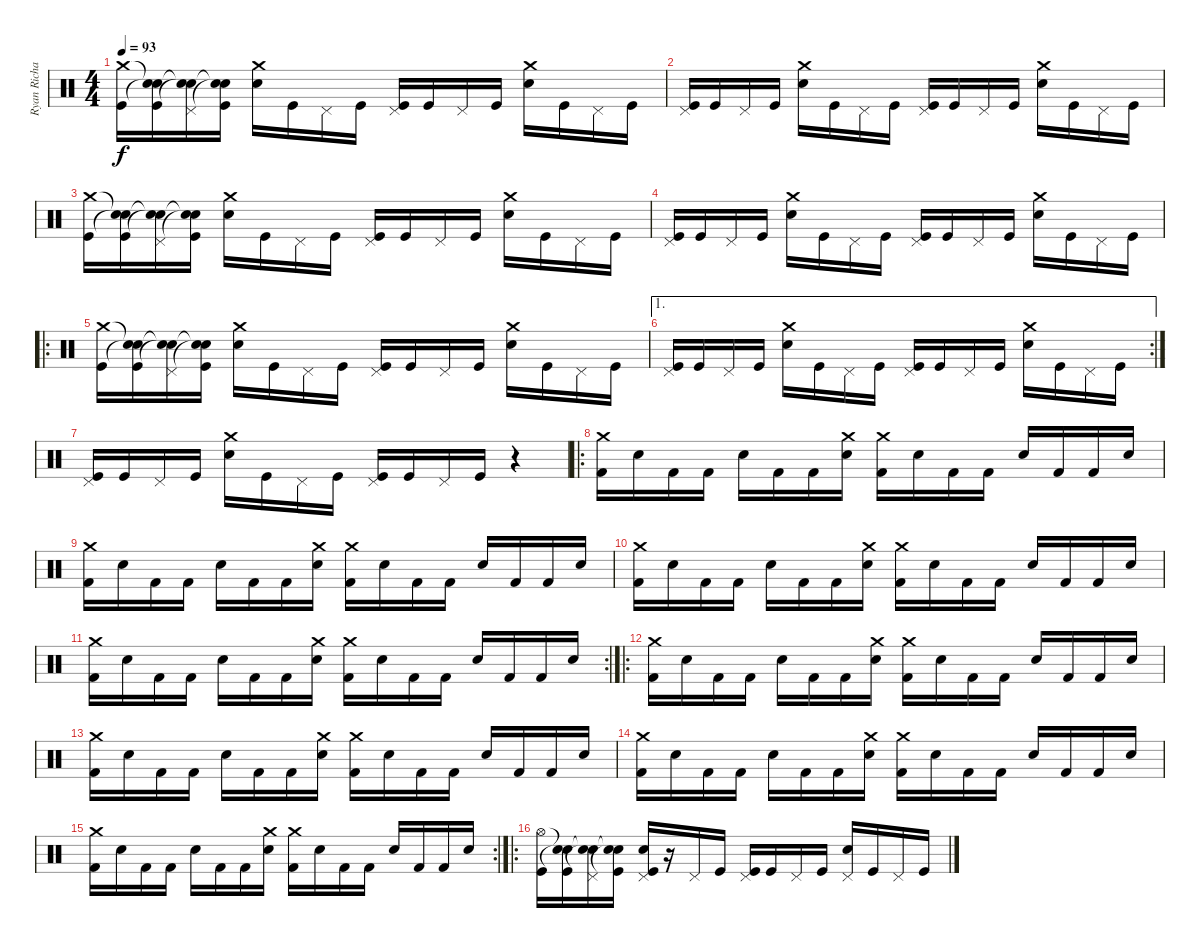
\track ("Ryan Richards" "Ryan Richa") {instrument percussion}
\staff {score}
\articulation defaults
\ts (4 4)
\tempo 93
\clef neutral
\ks c
("Crash medium (hit)" "Kick (hit)").16{dy f} ("Snare (hit)"{t} "Snare (hit)"{t} "Kick (hit)").16 ("Snare (hit)"{t} "Pedal Hi-Hat (hit)" "Snare (hit)"{t}).16 ("Snare (hit)"{t} "Snare (hit)"{t} "Kick (hit)").16 ("Crash medium (hit)" "Electric Snare (hit)").16 "Kick (hit)".16 "Pedal Hi-Hat (hit)".16 "Kick (hit)".16 ("Pedal Hi-Hat (hit)" "Kick (hit)").16 "Kick (hit)".16 "Pedal Hi-Hat (hit)".16 "Kick (hit)".16 ("Crash medium (hit)" "Electric Snare (hit)").16 "Kick (hit)".16 "Pedal Hi-Hat (hit)".16 "Kick (hit)".16 |
("Pedal Hi-Hat (hit)" "Kick (hit)").16 "Kick (hit)".16 "Pedal Hi-Hat (hit)".16 "Kick (hit)".16 ("Crash medium (hit)" "Electric Snare (hit)").16 "Kick (hit)".16 "Pedal Hi-Hat (hit)".16 "Kick (hit)".16 ("Pedal Hi-Hat (hit)" "Kick (hit)").16 "Kick (hit)".16 "Pedal Hi-Hat (hit)".16 "Kick (hit)".16 ("Crash medium (hit)" "Electric Snare (hit)").16 "Kick (hit)".16 "Pedal Hi-Hat (hit)".16 "Kick (hit)".16 |
("Crash medium (hit)" "Kick (hit)").16 ("Snare (hit)"{t} "Snare (hit)"{t} "Kick (hit)").16 ("Snare (hit)"{t} "Pedal Hi-Hat (hit)" "Snare (hit)"{t}).16 ("Snare (hit)"{t} "Snare (hit)"{t} "Kick (hit)").16 ("Crash medium (hit)" "Electric Snare (hit)").16 "Kick (hit)".16 "Pedal Hi-Hat (hit)".16 "Kick (hit)".16 ("Pedal Hi-Hat (hit)" "Kick (hit)").16 "Kick (hit)".16 "Pedal Hi-Hat (hit)".16 "Kick (hit)".16 ("Crash medium (hit)" "Electric Snare (hit)").16 "Kick (hit)".16 "Pedal Hi-Hat (hit)".16 "Kick (hit)".16 |
("Pedal Hi-Hat (hit)" "Kick (hit)").16 "Kick (hit)".16 "Pedal Hi-Hat (hit)".16 "Kick (hit)".16 ("Crash medium (hit)" "Electric Snare (hit)").16 "Kick (hit)".16 "Pedal Hi-Hat (hit)".16 "Kick (hit)".16 ("Pedal Hi-Hat (hit)" "Kick (hit)").16 "Kick (hit)".16 "Pedal Hi-Hat (hit)".16 "Kick (hit)".16 ("Crash medium (hit)" "Electric Snare (hit)").16 "Kick (hit)".16 "Pedal Hi-Hat (hit)".16 "Kick (hit)".16 |
\ro
("Crash medium (hit)" "Kick (hit)").16 ("Snare (hit)"{t} "Snare (hit)"{t} "Kick (hit)").16 ("Snare (hit)"{t} "Pedal Hi-Hat (hit)" "Snare (hit)"{t}).16 ("Snare (hit)"{t} "Snare (hit)"{t} "Kick (hit)").16 ("Crash medium (hit)" "Electric Snare (hit)").16 "Kick (hit)".16 "Pedal Hi-Hat (hit)".16 "Kick (hit)".16 ("Pedal Hi-Hat (hit)" "Kick (hit)").16 "Kick (hit)".16 "Pedal Hi-Hat (hit)".16 "Kick (hit)".16 ("Crash medium (hit)" "Electric Snare (hit)").16 "Kick (hit)".16 "Pedal Hi-Hat (hit)".16 "Kick (hit)".16 |
\ae 1
\rc 2
("Pedal Hi-Hat (hit)" "Kick (hit)").16 "Kick (hit)".16 "Pedal Hi-Hat (hit)".16 "Kick (hit)".16 ("Crash medium (hit)" "Electric Snare (hit)").16 "Kick (hit)".16 "Pedal Hi-Hat (hit)".16 "Kick (hit)".16 ("Pedal Hi-Hat (hit)" "Kick (hit)").16 "Kick (hit)".16 "Pedal Hi-Hat (hit)".16 "Kick (hit)".16 ("Crash medium (hit)" "Electric Snare (hit)").16 "Kick (hit)".16 "Pedal Hi-Hat (hit)".16 "Kick (hit)".16 |
("Pedal Hi-Hat (hit)" "Kick (hit)").16 "Kick (hit)".16 "Pedal Hi-Hat (hit)".16 "Kick (hit)".16 ("Crash medium (hit)" "Electric Snare (hit)").16 "Kick (hit)".16 "Pedal Hi-Hat (hit)".16 "Kick (hit)".16 ("Pedal Hi-Hat (hit)" "Kick (hit)").16 "Kick (hit)".16 "Pedal Hi-Hat (hit)".16 "Kick (hit)".16 r.4 |
\ro
("Crash medium (hit)" "Kick (hit) 2").16 "Electric Snare (hit)".16 "Kick (hit) 2".16 "Kick (hit) 2".16 "Electric Snare (hit)".16 "Kick (hit) 2".16 "Kick (hit) 2".16 ("Crash medium (hit)" "Electric Snare (hit)").16 ("Crash medium (hit)" "Kick (hit) 2").16 "Electric Snare (hit)".16 "Kick (hit) 2".16 "Kick (hit) 2".16 "Electric Snare (hit)".16 "Kick (hit) 2".16 "Kick (hit) 2".16 "Electric Snare (hit)".16 |
("Crash medium (hit)" "Kick (hit) 2").16 "Electric Snare (hit)".16 "Kick (hit) 2".16 "Kick (hit) 2".16 "Electric Snare (hit)".16 "Kick (hit) 2".16 "Kick (hit) 2".16 ("Crash medium (hit)" "Electric Snare (hit)").16 ("Crash medium (hit)" "Kick (hit) 2").16 "Electric Snare (hit)".16 "Kick (hit) 2".16 "Kick (hit) 2".16 "Electric Snare (hit)".16 "Kick (hit) 2".16 "Kick (hit) 2".16 "Electric Snare (hit)".16 |
("Crash medium (hit)" "Kick (hit) 2").16 "Electric Snare (hit)".16 "Kick (hit) 2".16 "Kick (hit) 2".16 "Electric Snare (hit)".16 "Kick (hit) 2".16 "Kick (hit) 2".16 ("Crash medium (hit)" "Electric Snare (hit)").16 ("Crash medium (hit)" "Kick (hit) 2").16 "Electric Snare (hit)".16 "Kick (hit) 2".16 "Kick (hit) 2".16 "Electric Snare (hit)".16 "Kick (hit) 2".16 "Kick (hit) 2".16 "Electric Snare (hit)".16 |
\rc 2
("Crash medium (hit)" "Kick (hit) 2").16 "Electric Snare (hit)".16 "Kick (hit) 2".16 "Kick (hit) 2".16 "Electric Snare (hit)".16 "Kick (hit) 2".16 "Kick (hit) 2".16 ("Crash medium (hit)" "Electric Snare (hit)").16 ("Crash medium (hit)" "Kick (hit) 2").16 "Electric Snare (hit)".16 "Kick (hit) 2".16 "Kick (hit) 2".16 "Electric Snare (hit)".16 "Kick (hit) 2".16 "Kick (hit) 2".16 "Electric Snare (hit)".16 |
\ro
("Crash medium (hit)" "Kick (hit) 2").16 "Electric Snare (hit)".16 "Kick (hit) 2".16 "Kick (hit) 2".16 "Electric Snare (hit)".16 "Kick (hit) 2".16 "Kick (hit) 2".16 ("Crash medium (hit)" "Electric Snare (hit)").16 ("Crash medium (hit)" "Kick (hit) 2").16 "Electric Snare (hit)".16 "Kick (hit) 2".16 "Kick (hit) 2".16 "Electric Snare (hit)".16 "Kick (hit) 2".16 "Kick (hit) 2".16 "Electric Snare (hit)".16 |
("Crash medium (hit)" "Kick (hit) 2").16 "Electric Snare (hit)".16 "Kick (hit) 2".16 "Kick (hit) 2".16 "Electric Snare (hit)".16 "Kick (hit) 2".16 "Kick (hit) 2".16 ("Crash medium (hit)" "Electric Snare (hit)").16 ("Crash medium (hit)" "Kick (hit) 2").16 "Electric Snare (hit)".16 "Kick (hit) 2".16 "Kick (hit) 2".16 "Electric Snare (hit)".16 "Kick (hit) 2".16 "Kick (hit) 2".16 "Electric Snare (hit)".16 |
("Crash medium (hit)" "Kick (hit) 2").16 "Electric Snare (hit)".16 "Kick (hit) 2".16 "Kick (hit) 2".16 "Electric Snare (hit)".16 "Kick (hit) 2".16 "Kick (hit) 2".16 ("Crash medium (hit)" "Electric Snare (hit)").16 ("Crash medium (hit)" "Kick (hit) 2").16 "Electric Snare (hit)".16 "Kick (hit) 2".16 "Kick (hit) 2".16 "Electric Snare (hit)".16 "Kick (hit) 2".16 "Kick (hit) 2".16 "Electric Snare (hit)".16 |
\rc 2
("Crash medium (hit)" "Kick (hit) 2").16 "Electric Snare (hit)".16 "Kick (hit) 2".16 "Kick (hit) 2".16 "Electric Snare (hit)".16 "Kick (hit) 2".16 "Kick (hit) 2".16 ("Crash medium (hit)" "Electric Snare (hit)").16 ("Crash medium (hit)" "Kick (hit) 2").16 "Electric Snare (hit)".16 "Kick (hit) 2".16 "Kick (hit) 2".16 "Electric Snare (hit)".16 "Kick (hit) 2".16 "Kick (hit) 2".16 "Electric Snare (hit)".16 |
\ro
("Hi-Hat (open)" "Kick (hit)").16 ("Snare (hit)"{t} "Snare (hit)"{t} "Kick (hit)").16 ("Snare (hit)"{t} "Pedal Hi-Hat (hit)" "Snare (hit)"{t}).16 ("Snare (hit)"{t} "Snare (hit)"{t} "Kick (hit)").16 ("Pedal Hi-Hat (hit)" "Electric Snare (hit)" "Kick (hit)").16 r.16 "Pedal Hi-Hat (hit)".16 "Kick (hit)".16 ("Pedal Hi-Hat (hit)" "Kick (hit)").16 "Kick (hit)".16 "Pedal Hi-Hat (hit)".16 "Kick (hit)".16 ("Pedal Hi-Hat (hit)" "Electric Snare (hit)").16 "Kick (hit)".16 "Pedal Hi-Hat (hit)".16 "Kick (hit)".16
